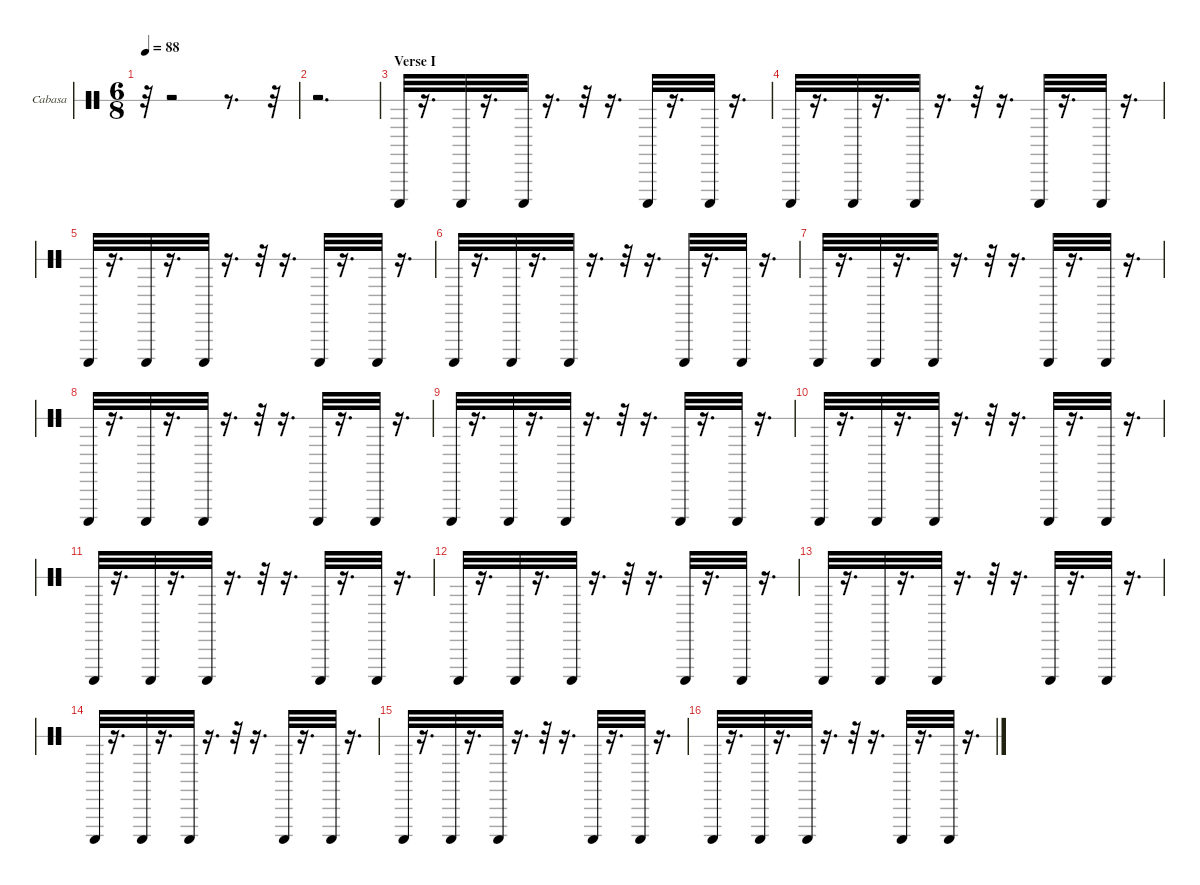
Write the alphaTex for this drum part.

\hideDynamics
\bracketExtendMode nobrackets
\firstSystemTrackNameOrientation horizontal
\otherSystemsTrackNameOrientation horizontal
\track ("Cabasa" "Cabasa") {instrument percussion}
\staff {score 1}
\articulation defaults
\ts (6 8)
\tempo 88
\clef neutral
\ks c
r.32{dy f} r.2 r.8{d} r.32 |
r.2{d} |
\section ("" "Verse I")
"Cabasa (hit)".32{dy fff} r.16{d} "Cabasa (hit)".32{dy mf} r.16{d} "Cabasa (hit)".32{dy mp} r.16{d} r.32 r.16{d} "Cabasa (hit)".32{dy mf} r.16{d} "Cabasa (hit)".32{dy mp} r.16{d} |
"Cabasa (hit)".32{dy fff} r.16{d} "Cabasa (hit)".32{dy mf} r.16{d} "Cabasa (hit)".32{dy mp} r.16{d} r.32 r.16{d} "Cabasa (hit)".32{dy mf} r.16{d} "Cabasa (hit)".32{dy f} r.16{d} |
"Cabasa (hit)".32{dy fff} r.16{d} "Cabasa (hit)".32{dy mf} r.16{d} "Cabasa (hit)".32{dy mp} r.16{d} r.32 r.16{d} "Cabasa (hit)".32{dy mf} r.16{d} "Cabasa (hit)".32{dy mp} r.16{d} |
"Cabasa (hit)".32{dy fff} r.16{d} "Cabasa (hit)".32{dy mf} r.16{d} "Cabasa (hit)".32{dy mp} r.16{d} r.32 r.16{d} "Cabasa (hit)".32{dy mf} r.16{d} "Cabasa (hit)".32{dy mp} r.16{d} |
"Cabasa (hit)".32{dy fff} r.16{d} "Cabasa (hit)".32{dy mf} r.16{d} "Cabasa (hit)".32{dy mp} r.16{d} r.32 r.16{d} "Cabasa (hit)".32{dy mf} r.16{d} "Cabasa (hit)".32{dy mp} r.16{d} |
"Cabasa (hit)".32{dy fff} r.16{d} "Cabasa (hit)".32{dy mf} r.16{d} "Cabasa (hit)".32{dy mp} r.16{d} r.32 r.16{d} "Cabasa (hit)".32{dy mf} r.16{d} "Cabasa (hit)".32{dy f} r.16{d} |
"Cabasa (hit)".32{dy fff} r.16{d} "Cabasa (hit)".32{dy mf} r.16{d} "Cabasa (hit)".32{dy mp} r.16{d} r.32 r.16{d} "Cabasa (hit)".32{dy mf} r.16{d} "Cabasa (hit)".32{dy mp} r.16{d} |
"Cabasa (hit)".32{dy fff} r.16{d} "Cabasa (hit)".32{dy mf} r.16{d} "Cabasa (hit)".32{dy mp} r.16{d} r.32 r.16{d} "Cabasa (hit)".32{dy mf} r.16{d} "Cabasa (hit)".32{dy mp} r.16{d} |
"Cabasa (hit)".32{dy fff} r.16{d} "Cabasa (hit)".32{dy mf} r.16{d} "Cabasa (hit)".32{dy mp} r.16{d} r.32 r.16{d} "Cabasa (hit)".32{dy mf} r.16{d} "Cabasa (hit)".32{dy mp} r.16{d} |
"Cabasa (hit)".32{dy fff} r.16{d} "Cabasa (hit)".32{dy mf} r.16{d} "Cabasa (hit)".32{dy mp} r.16{d} r.32 r.16{d} "Cabasa (hit)".32{dy mf} r.16{d} "Cabasa (hit)".32{dy mp} r.16{d} |
"Cabasa (hit)".32{dy fff} r.16{d} "Cabasa (hit)".32{dy mf} r.16{d} "Cabasa (hit)".32{dy mp} r.16{d} r.32 r.16{d} "Cabasa (hit)".32{dy mf} r.16{d} "Cabasa (hit)".32{dy mp} r.16{d} |
"Cabasa (hit)".32{dy fff} r.16{d} "Cabasa (hit)".32{dy mf} r.16{d} "Cabasa (hit)".32{dy mp} r.16{d} r.32 r.16{d} "Cabasa (hit)".32{dy mf} r.16{d} "Cabasa (hit)".32{dy mp} r.16{d} |
"Cabasa (hit)".32{dy fff} r.16{d} "Cabasa (hit)".32{dy mf} r.16{d} "Cabasa (hit)".32{dy mp} r.16{d} r.32 r.16{d} "Cabasa (hit)".32{dy mf} r.16{d} "Cabasa (hit)".32{dy mp} r.16{d} |
"Cabasa (hit)".32{dy fff} r.16{d} "Cabasa (hit)".32{dy mf} r.16{d} "Cabasa (hit)".32{dy mp} r.16{d} r.32 r.16{d} "Cabasa (hit)".32{dy mf} r.16{d} "Cabasa (hit)".32{dy mp} r.16{d}
